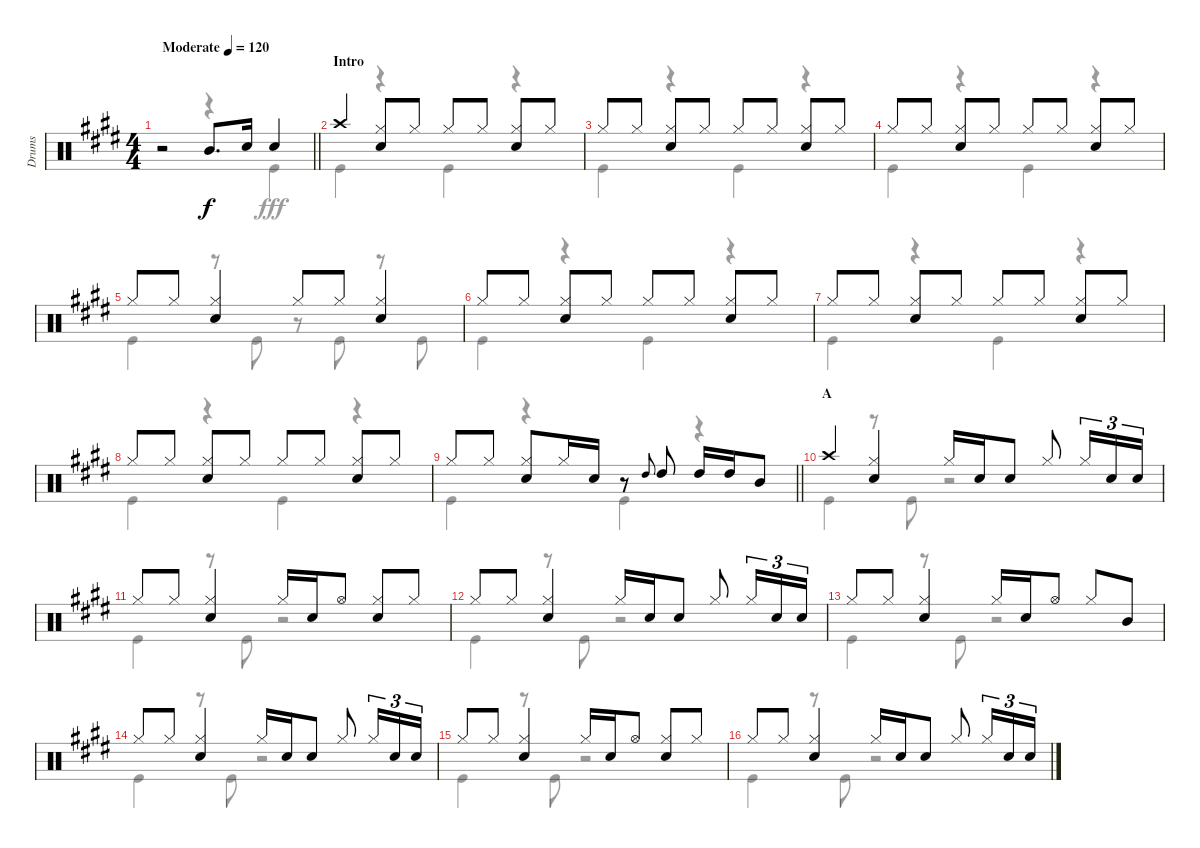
\track ("Drums" "Drums") {instrument percussion}
\staff {score}
\articulation defaults
\voice
\ts (4 4)
\tempo (120 "Moderate")
\clef neutral
\barLineRight lightlight
\ks e
r.2{dy f} "Mid Tom (hit)".8{d} "Snare (hit) 2".16 "Snare (hit) 2".4 |
\section ("" "Intro")
"Crash high (hit)".4 ("Hi-Hat (closed)" "Snare (hit) 2").8 "Hi-Hat (closed)".8 "Hi-Hat (closed)".8 "Hi-Hat (closed)".8 ("Hi-Hat (closed)" "Snare (hit) 2").8 "Hi-Hat (closed)".8 |
"Hi-Hat (closed)".8 "Hi-Hat (closed)".8 ("Hi-Hat (closed)" "Snare (hit) 2").8 "Hi-Hat (closed)".8 "Hi-Hat (closed)".8 "Hi-Hat (closed)".8 ("Hi-Hat (closed)" "Snare (hit) 2").8 "Hi-Hat (closed)".8 |
"Hi-Hat (closed)".8 "Hi-Hat (closed)".8 ("Hi-Hat (closed)" "Snare (hit) 2").8 "Hi-Hat (closed)".8 "Hi-Hat (closed)".8 "Hi-Hat (closed)".8 ("Hi-Hat (closed)" "Snare (hit) 2").8 "Hi-Hat (closed)".8 |
"Hi-Hat (closed)".8 "Hi-Hat (closed)".8 ("Hi-Hat (closed)" "Snare (hit) 2").4 "Hi-Hat (closed)".8 "Hi-Hat (closed)".8 ("Hi-Hat (closed)" "Snare (hit) 2").4 |
"Hi-Hat (closed)".8 "Hi-Hat (closed)".8 ("Hi-Hat (closed)" "Snare (hit) 2").8 "Hi-Hat (closed)".8 "Hi-Hat (closed)".8 "Hi-Hat (closed)".8 ("Hi-Hat (closed)" "Snare (hit) 2").8 "Hi-Hat (closed)".8 |
"Hi-Hat (closed)".8 "Hi-Hat (closed)".8 ("Hi-Hat (closed)" "Snare (hit) 2").8 "Hi-Hat (closed)".8 "Hi-Hat (closed)".8 "Hi-Hat (closed)".8 ("Hi-Hat (closed)" "Snare (hit) 2").8 "Hi-Hat (closed)".8 |
"Hi-Hat (closed)".8 "Hi-Hat (closed)".8 ("Hi-Hat (closed)" "Snare (hit) 2").8 "Hi-Hat (closed)".8 "Hi-Hat (closed)".8 "Hi-Hat (closed)".8 ("Hi-Hat (closed)" "Snare (hit) 2").8 "Hi-Hat (closed)".8 |
\barLineRight lightlight "Hi-Hat (closed)".8 "Hi-Hat (closed)".8
("Hi-Hat (closed)" "Snare (hit) 2").8 "Hi-Hat (closed)".16 "Snare (hit) 2".16 r.8 "High Tom (hit)".8{gr onbeat} "High Tom (hit)".8 "High Tom (hit)".16 "High Tom (hit)".16 "Mid Tom (hit)".8 |
\section ("" "A")
"Crash high (hit)".4 ("Hi-Hat (closed)" "Snare (hit) 2").4 "Hi-Hat (closed)".16 "Snare (hit) 2".16 "Snare (hit) 2".8 "Hi-Hat (closed)".8 "Hi-Hat (closed)".16{tu (3 2)} "Snare (hit) 2".16{tu (3 2)} "Snare (hit) 2".16{tu (3 2)} |
"Hi-Hat (closed)".8 "Hi-Hat (closed)".8 ("Hi-Hat (closed)" "Snare (hit) 2").4 "Hi-Hat (closed)".16 "Snare (hit) 2".16 "Hi-Hat (open)".8 ("Hi-Hat (closed)" "Snare (hit) 2").8 "Hi-Hat (closed)".8 |
"Hi-Hat (closed)".8 "Hi-Hat (closed)".8 ("Hi-Hat (closed)" "Snare (hit) 2").4 "Hi-Hat (closed)".16 "Snare (hit) 2".16 "Snare (hit) 2".8 "Hi-Hat (closed)".8 "Hi-Hat (closed)".16{tu (3 2)} "Snare (hit) 2".16{tu (3 2)} "Snare (hit) 2".16{tu (3 2)} |
"Hi-Hat (closed)".8 "Hi-Hat (closed)".8 ("Hi-Hat (closed)" "Snare (hit) 2").4 "Hi-Hat (closed)".16 "Snare (hit) 2".16 "Hi-Hat (open)".8 "Hi-Hat (closed)".8 "Mid Tom (hit)".8 |
"Hi-Hat (closed)".8 "Hi-Hat (closed)".8 ("Hi-Hat (closed)" "Snare (hit) 2").4 "Hi-Hat (closed)".16 "Snare (hit) 2".16 "Snare (hit) 2".8 "Hi-Hat (closed)".8 "Hi-Hat (closed)".16{tu (3 2)} "Snare (hit) 2".16{tu (3 2)} "Snare (hit) 2".16{tu (3 2)} |
"Hi-Hat (closed)".8 "Hi-Hat (closed)".8 ("Hi-Hat (closed)" "Snare (hit) 2").4 "Hi-Hat (closed)".16 "Snare (hit) 2".16 "Hi-Hat (open)".8 ("Hi-Hat (closed)" "Snare (hit) 2").8 "Hi-Hat (closed)".8 |
"Hi-Hat (closed)".8 "Hi-Hat (closed)".8 ("Hi-Hat (closed)" "Snare (hit) 2").4 "Hi-Hat (closed)".16 "Snare (hit) 2".16 "Snare (hit) 2".8 "Hi-Hat (closed)".8 "Hi-Hat (closed)".16{tu (3 2)} "Snare (hit) 2".16{tu (3 2)} "Snare (hit) 2".16{tu (3 2)}
\voice
\clef neutral
\ottava regular
\simile none
\barLineRight lightlight
\ks e
r.2{dy fff} r.4 "Kick (hit)".4 |
"Kick (hit)".4 r.4 "Kick (hit)".4 r.4 |
"Kick (hit)".4 r.4 "Kick (hit)".4 r.4 |
"Kick (hit)".4 r.4 "Kick (hit)".4 r.4 |
"Kick (hit)".4 r.8 "Kick (hit)".8 r.8 "Kick (hit)".8 r.8 "Kick (hit)".8 |
"Kick (hit)".4 r.4 "Kick (hit)".4 r.4 |
"Kick (hit)".4 r.4 "Kick (hit)".4 r.4 |
"Kick (hit)".4 r.4 "Kick (hit)".4 r.4 |
\barLineRight lightlight "Kick (hit)".4
r.4 "Kick (hit)".4 r.4 |
"Kick (hit)".4 r.8 "Kick (hit)".8 r.2 |
"Kick (hit)".4 r.8 "Kick (hit)".8 r.2 |
"Kick (hit)".4 r.8 "Kick (hit)".8 r.2 |
"Kick (hit)".4 r.8 "Kick (hit)".8 r.2 |
"Kick (hit)".4 r.8 "Kick (hit)".8 r.2 |
"Kick (hit)".4 r.8 "Kick (hit)".8 r.2 |
"Kick (hit)".4 r.8 "Kick (hit)".8 r.2
